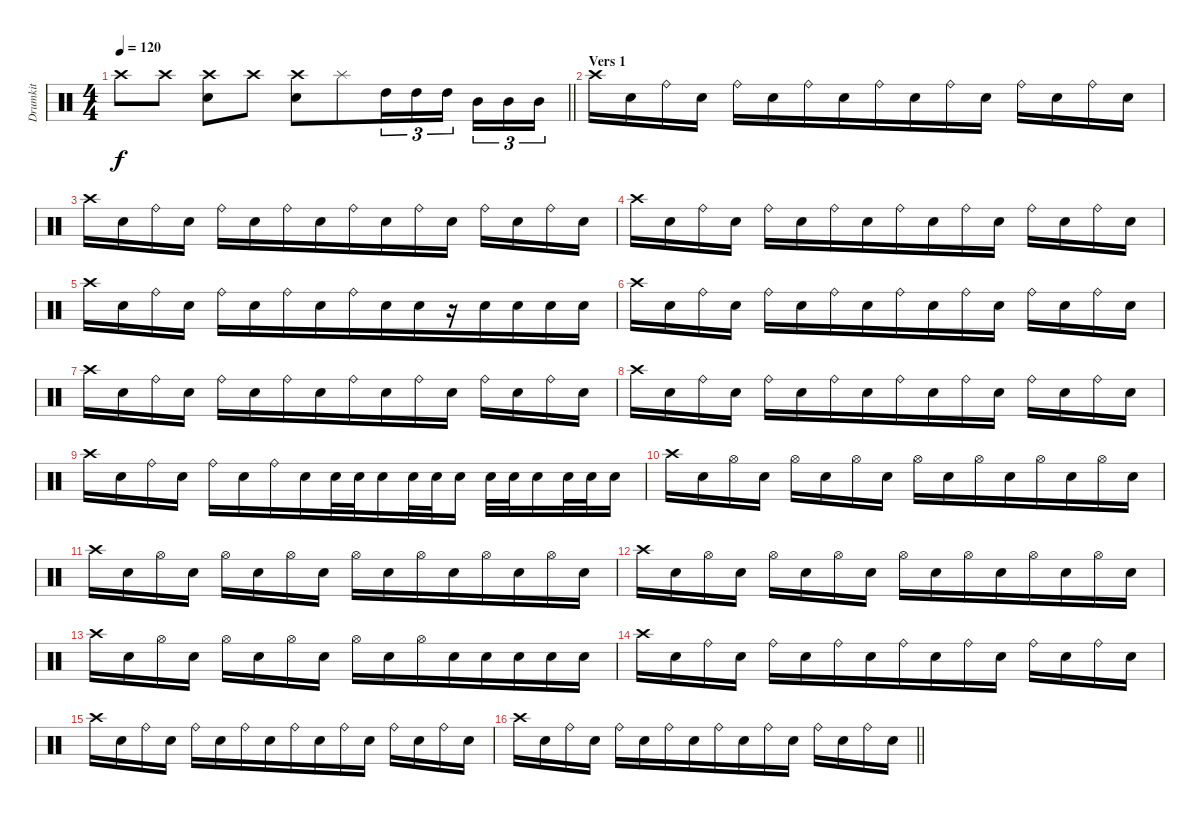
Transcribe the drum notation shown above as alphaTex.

\track ("Drumkit" "Drumkit") {instrument percussion}
\staff {score}
\articulation defaults
\ts (4 4)
\tempo 120
\clef neutral
\barLineRight lightlight
\ks c "Crash high (hit)".8{dy f beam merge} "Crash high (hit)".8
("Crash high (hit)" "Electric Snare (hit)").8 "Crash high (hit)".8 ("Crash high (hit)" "Electric Snare (hit)").8 "Splash (hit)".8{beam merge} "High Tom (hit)".16{tu (3 2)} "High Tom (hit)".16{tu (3 2) beam merge} "High Tom (hit)".16{tu (3 2) beam splitsecondary} "Mid Tom (hit)".16{tu (3 2) beam merge} "Mid Tom (hit)".16{tu (3 2)} "Mid Tom (hit)".16{tu (3 2)} |
\section ("" "Vers 1")
"Crash high (hit)".16 "Electric Snare (hit)".16 "Ride (bell)".16 "Electric Snare (hit)".16 "Ride (bell)".16 "Electric Snare (hit)".16{beam merge} "Ride (bell)".16 "Electric Snare (hit)".16{beam merge} "Ride (bell)".16 "Electric Snare (hit)".16{beam merge} "Ride (bell)".16{beam merge} "Electric Snare (hit)".16 "Ride (bell)".16 "Electric Snare (hit)".16 "Ride (bell)".16 "Electric Snare (hit)".16 |
"Crash high (hit)".16 "Electric Snare (hit)".16 "Ride (bell)".16 "Electric Snare (hit)".16 "Ride (bell)".16 "Electric Snare (hit)".16{beam merge} "Ride (bell)".16 "Electric Snare (hit)".16{beam merge} "Ride (bell)".16 "Electric Snare (hit)".16{beam merge} "Ride (bell)".16{beam merge} "Electric Snare (hit)".16 "Ride (bell)".16 "Electric Snare (hit)".16 "Ride (bell)".16 "Electric Snare (hit)".16 |
"Crash high (hit)".16 "Electric Snare (hit)".16 "Ride (bell)".16 "Electric Snare (hit)".16 "Ride (bell)".16 "Electric Snare (hit)".16{beam merge} "Ride (bell)".16 "Electric Snare (hit)".16{beam merge} "Ride (bell)".16 "Electric Snare (hit)".16{beam merge} "Ride (bell)".16{beam merge} "Electric Snare (hit)".16 "Ride (bell)".16 "Electric Snare (hit)".16 "Ride (bell)".16 "Electric Snare (hit)".16 |
"Crash high (hit)".16 "Electric Snare (hit)".16 "Ride (bell)".16 "Electric Snare (hit)".16 "Ride (bell)".16 "Electric Snare (hit)".16{beam merge} "Ride (bell)".16 "Electric Snare (hit)".16{beam merge} "Ride (bell)".16 "Electric Snare (hit)".16{beam merge} "Electric Snare (hit)".16{beam merge} r.16 "Electric Snare (hit)".16 "Electric Snare (hit)".16 "Electric Snare (hit)".16 "Electric Snare (hit)".16 |
"Crash high (hit)".16 "Electric Snare (hit)".16 "Ride (bell)".16 "Electric Snare (hit)".16 "Ride (bell)".16 "Electric Snare (hit)".16{beam merge} "Ride (bell)".16 "Electric Snare (hit)".16{beam merge} "Ride (bell)".16 "Electric Snare (hit)".16{beam merge} "Ride (bell)".16{beam merge} "Electric Snare (hit)".16 "Ride (bell)".16 "Electric Snare (hit)".16 "Ride (bell)".16 "Electric Snare (hit)".16 |
"Crash high (hit)".16 "Electric Snare (hit)".16 "Ride (bell)".16 "Electric Snare (hit)".16 "Ride (bell)".16 "Electric Snare (hit)".16{beam merge} "Ride (bell)".16 "Electric Snare (hit)".16{beam merge} "Ride (bell)".16 "Electric Snare (hit)".16{beam merge} "Ride (bell)".16{beam merge} "Electric Snare (hit)".16 "Ride (bell)".16 "Electric Snare (hit)".16 "Ride (bell)".16 "Electric Snare (hit)".16 |
"Crash high (hit)".16 "Electric Snare (hit)".16 "Ride (bell)".16 "Electric Snare (hit)".16 "Ride (bell)".16 "Electric Snare (hit)".16{beam merge} "Ride (bell)".16 "Electric Snare (hit)".16{beam merge} "Ride (bell)".16 "Electric Snare (hit)".16{beam merge} "Ride (bell)".16{beam merge} "Electric Snare (hit)".16 "Ride (bell)".16 "Electric Snare (hit)".16 "Ride (bell)".16 "Electric Snare (hit)".16 |
"Crash high (hit)".16 "Electric Snare (hit)".16 "Ride (bell)".16 "Electric Snare (hit)".16 "Ride (bell)".16 "Electric Snare (hit)".16{beam merge} "Ride (bell)".16 "Electric Snare (hit)".16{beam merge} "Electric Snare (hit)".32 "Electric Snare (hit)".32{beam merge} "Electric Snare (hit)".16{beam merge} "Electric Snare (hit)".32 "Electric Snare (hit)".32 "Electric Snare (hit)".16 "Electric Snare (hit)".32 "Electric Snare (hit)".32{beam merge} "Electric Snare (hit)".16 "Electric Snare (hit)".32 "Electric Snare (hit)".32{beam merge} "Electric Snare (hit)".16 |
"Crash high (hit)".16 "Electric Snare (hit)".16 "Hi-Hat (open)".16 "Electric Snare (hit)".16 "Hi-Hat (open)".16{beam merge} "Electric Snare (hit)".16 "Hi-Hat (open)".16 "Electric Snare (hit)".16 "Hi-Hat (open)".16 "Electric Snare (hit)".16 "Hi-Hat (open)".16 "Electric Snare (hit)".16{beam merge} "Hi-Hat (open)".16{beam merge} "Electric Snare (hit)".16{beam merge} "Hi-Hat (open)".16 "Electric Snare (hit)".16 |
"Crash high (hit)".16 "Electric Snare (hit)".16 "Hi-Hat (open)".16 "Electric Snare (hit)".16 "Hi-Hat (open)".16{beam merge} "Electric Snare (hit)".16 "Hi-Hat (open)".16 "Electric Snare (hit)".16 "Hi-Hat (open)".16 "Electric Snare (hit)".16 "Hi-Hat (open)".16 "Electric Snare (hit)".16{beam merge} "Hi-Hat (open)".16{beam merge} "Electric Snare (hit)".16{beam merge} "Hi-Hat (open)".16 "Electric Snare (hit)".16 |
"Crash high (hit)".16 "Electric Snare (hit)".16 "Hi-Hat (open)".16 "Electric Snare (hit)".16 "Hi-Hat (open)".16{beam merge} "Electric Snare (hit)".16 "Hi-Hat (open)".16 "Electric Snare (hit)".16 "Hi-Hat (open)".16 "Electric Snare (hit)".16 "Hi-Hat (open)".16 "Electric Snare (hit)".16{beam merge} "Hi-Hat (open)".16{beam merge} "Electric Snare (hit)".16{beam merge} "Hi-Hat (open)".16 "Electric Snare (hit)".16 |
"Crash high (hit)".16 "Electric Snare (hit)".16 "Hi-Hat (open)".16 "Electric Snare (hit)".16 "Hi-Hat (open)".16{beam merge} "Electric Snare (hit)".16 "Hi-Hat (open)".16 "Electric Snare (hit)".16 "Hi-Hat (open)".16 "Electric Snare (hit)".16 "Hi-Hat (open)".16 "Electric Snare (hit)".16{beam merge} "Electric Snare (hit)".16{beam merge} "Electric Snare (hit)".16{beam merge} "Electric Snare (hit)".16 "Electric Snare (hit)".16 |
"Crash high (hit)".16 "Electric Snare (hit)".16 "Ride (bell)".16 "Electric Snare (hit)".16 "Ride (bell)".16 "Electric Snare (hit)".16{beam merge} "Ride (bell)".16 "Electric Snare (hit)".16{beam merge} "Ride (bell)".16 "Electric Snare (hit)".16{beam merge} "Ride (bell)".16{beam merge} "Electric Snare (hit)".16 "Ride (bell)".16 "Electric Snare (hit)".16 "Ride (bell)".16 "Electric Snare (hit)".16 |
"Crash high (hit)".16 "Electric Snare (hit)".16 "Ride (bell)".16 "Electric Snare (hit)".16 "Ride (bell)".16 "Electric Snare (hit)".16{beam merge} "Ride (bell)".16 "Electric Snare (hit)".16{beam merge} "Ride (bell)".16 "Electric Snare (hit)".16{beam merge} "Ride (bell)".16{beam merge} "Electric Snare (hit)".16 "Ride (bell)".16 "Electric Snare (hit)".16 "Ride (bell)".16 "Electric Snare (hit)".16 |
\barLineRight lightlight "Crash high (hit)".16 "Electric Snare (hit)".16 "Ride (bell)".16 "Electric Snare (hit)".16 "Ride (bell)".16 "Electric Snare (hit)".16{beam merge} "Ride (bell)".16 "Electric Snare (hit)".16{beam merge} "Ride (bell)".16 "Electric Snare (hit)".16{beam merge} "Ride (bell)".16{beam merge} "Electric Snare (hit)".16 "Ride (bell)".16 "Electric Snare (hit)".16 "Ride (bell)".16 "Electric Snare (hit)".16
